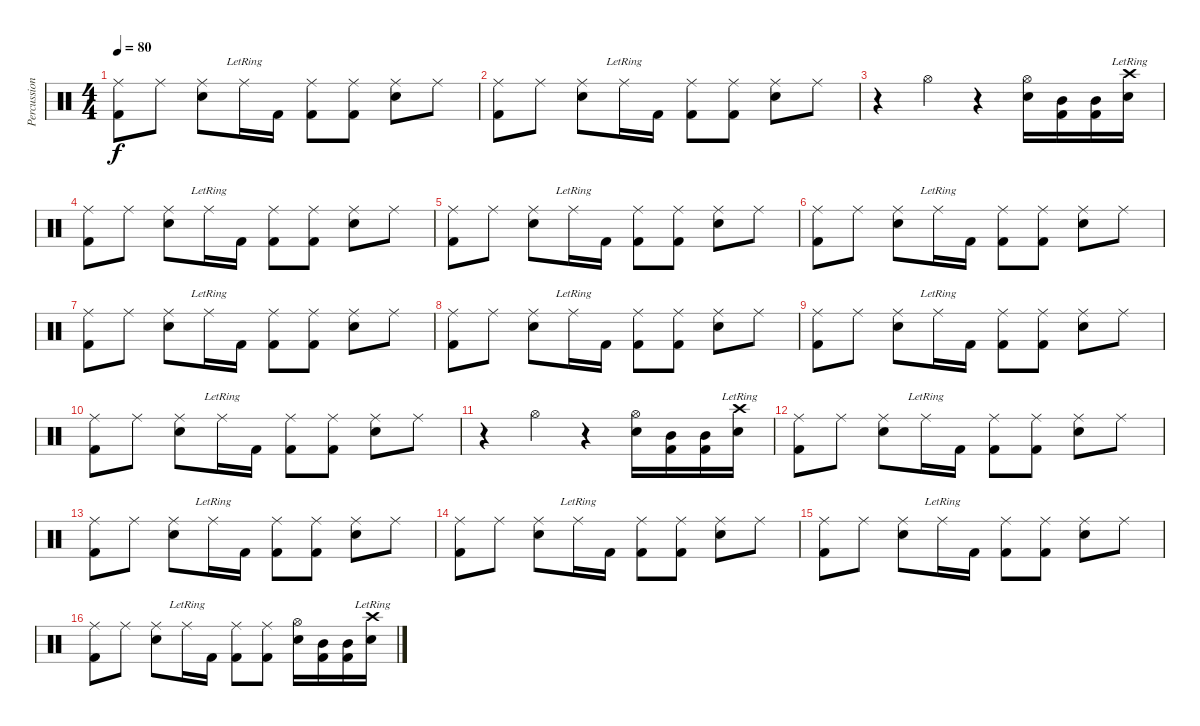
\track ("Percussions" "Percussion") {instrument percussion}
\staff {score}
\articulation defaults
\ts (4 4)
\tempo 80
\clef neutral
\ks c
("Kick (hit) 2" "Ride (middle)").8{dy f} "Ride (middle)".8 ("Snare (hit) 2" "Ride (middle)").8 "Ride (middle)"{lr}.16 "Kick (hit) 2".16 ("Kick (hit) 2" "Ride (middle)").8 ("Kick (hit) 2" "Ride (middle)").8 ("Snare (hit) 2" "Ride (middle)").8 "Ride (middle)".8 |
("Kick (hit) 2" "Ride (middle)").8 "Ride (middle)".8 ("Snare (hit) 2" "Ride (middle)").8 "Ride (middle)"{lr}.16 "Kick (hit) 2".16 ("Kick (hit) 2" "Ride (middle)").8 ("Kick (hit) 2" "Ride (middle)").8 ("Snare (hit) 2" "Ride (middle)").8 "Ride (middle)".8 |
r.4 "Hi-Hat (open)".4{volume 16} r.4 ("Snare (hit) 2" "Hi-Hat (open)").16 ("Kick (hit) 2" "Mid Tom (hit)").16 ("Kick (hit) 2" "Mid Tom (hit)").16 ("Snare (hit) 2" "Crash high (hit)"{lr}).16 |
("Kick (hit) 2" "Ride (middle)").8 "Ride (middle)".8 ("Snare (hit) 2" "Ride (middle)").8 "Ride (middle)"{lr}.16 "Kick (hit) 2".16 ("Kick (hit) 2" "Ride (middle)").8 ("Kick (hit) 2" "Ride (middle)").8 ("Snare (hit) 2" "Ride (middle)").8 "Ride (middle)".8 |
("Kick (hit) 2" "Ride (middle)").8 "Ride (middle)".8 ("Snare (hit) 2" "Ride (middle)").8 "Ride (middle)"{lr}.16 "Kick (hit) 2".16 ("Kick (hit) 2" "Ride (middle)").8 ("Kick (hit) 2" "Ride (middle)").8 ("Snare (hit) 2" "Ride (middle)").8 "Ride (middle)".8 |
("Kick (hit) 2" "Ride (middle)").8 "Ride (middle)".8 ("Snare (hit) 2" "Ride (middle)").8 "Ride (middle)"{lr}.16 "Kick (hit) 2".16 ("Kick (hit) 2" "Ride (middle)").8 ("Kick (hit) 2" "Ride (middle)").8 ("Snare (hit) 2" "Ride (middle)").8 "Ride (middle)".8 |
("Kick (hit) 2" "Ride (middle)").8 "Ride (middle)".8 ("Snare (hit) 2" "Ride (middle)").8 "Ride (middle)"{lr}.16 "Kick (hit) 2".16 ("Kick (hit) 2" "Ride (middle)").8 ("Kick (hit) 2" "Ride (middle)").8 ("Snare (hit) 2" "Ride (middle)").8 "Ride (middle)".8 |
("Kick (hit) 2" "Ride (middle)").8 "Ride (middle)".8 ("Snare (hit) 2" "Ride (middle)").8 "Ride (middle)"{lr}.16 "Kick (hit) 2".16 ("Kick (hit) 2" "Ride (middle)").8 ("Kick (hit) 2" "Ride (middle)").8 ("Snare (hit) 2" "Ride (middle)").8 "Ride (middle)".8 |
("Kick (hit) 2" "Ride (middle)").8 "Ride (middle)".8 ("Snare (hit) 2" "Ride (middle)").8 "Ride (middle)"{lr}.16 "Kick (hit) 2".16 ("Kick (hit) 2" "Ride (middle)").8 ("Kick (hit) 2" "Ride (middle)").8 ("Snare (hit) 2" "Ride (middle)").8 "Ride (middle)".8 |
("Kick (hit) 2" "Ride (middle)").8 "Ride (middle)".8 ("Snare (hit) 2" "Ride (middle)").8 "Ride (middle)"{lr}.16 "Kick (hit) 2".16 ("Kick (hit) 2" "Ride (middle)").8 ("Kick (hit) 2" "Ride (middle)").8 ("Snare (hit) 2" "Ride (middle)").8 "Ride (middle)".8 |
r.4 "Hi-Hat (open)".4{volume 16} r.4 ("Snare (hit) 2" "Hi-Hat (open)").16 ("Kick (hit) 2" "Mid Tom (hit)").16 ("Kick (hit) 2" "Mid Tom (hit)").16 ("Snare (hit) 2" "Crash high (hit)"{lr}).16 |
("Kick (hit) 2" "Ride (middle)").8 "Ride (middle)".8 ("Snare (hit) 2" "Ride (middle)").8 "Ride (middle)"{lr}.16 "Kick (hit) 2".16 ("Kick (hit) 2" "Ride (middle)").8 ("Kick (hit) 2" "Ride (middle)").8 ("Snare (hit) 2" "Ride (middle)").8 "Ride (middle)".8 |
("Kick (hit) 2" "Ride (middle)").8 "Ride (middle)".8 ("Snare (hit) 2" "Ride (middle)").8 "Ride (middle)"{lr}.16 "Kick (hit) 2".16 ("Kick (hit) 2" "Ride (middle)").8 ("Kick (hit) 2" "Ride (middle)").8 ("Snare (hit) 2" "Ride (middle)").8 "Ride (middle)".8 |
("Kick (hit) 2" "Ride (middle)").8 "Ride (middle)".8 ("Snare (hit) 2" "Ride (middle)").8 "Ride (middle)"{lr}.16 "Kick (hit) 2".16 ("Kick (hit) 2" "Ride (middle)").8 ("Kick (hit) 2" "Ride (middle)").8 ("Snare (hit) 2" "Ride (middle)").8 "Ride (middle)".8 |
("Kick (hit) 2" "Ride (middle)").8 "Ride (middle)".8 ("Snare (hit) 2" "Ride (middle)").8 "Ride (middle)"{lr}.16 "Kick (hit) 2".16 ("Kick (hit) 2" "Ride (middle)").8 ("Kick (hit) 2" "Ride (middle)").8 ("Snare (hit) 2" "Ride (middle)").8 "Ride (middle)".8 |
("Kick (hit) 2" "Ride (middle)").8 "Ride (middle)".8 ("Snare (hit) 2" "Ride (middle)").8 "Ride (middle)"{lr}.16 "Kick (hit) 2".16 ("Kick (hit) 2" "Ride (middle)").8 ("Kick (hit) 2" "Ride (middle)").8 ("Snare (hit) 2" "Hi-Hat (open)").16 ("Kick (hit) 2" "Mid Tom (hit)").16 ("Kick (hit) 2" "Mid Tom (hit)").16 ("Snare (hit) 2" "Crash high (hit)"{lr}).16
